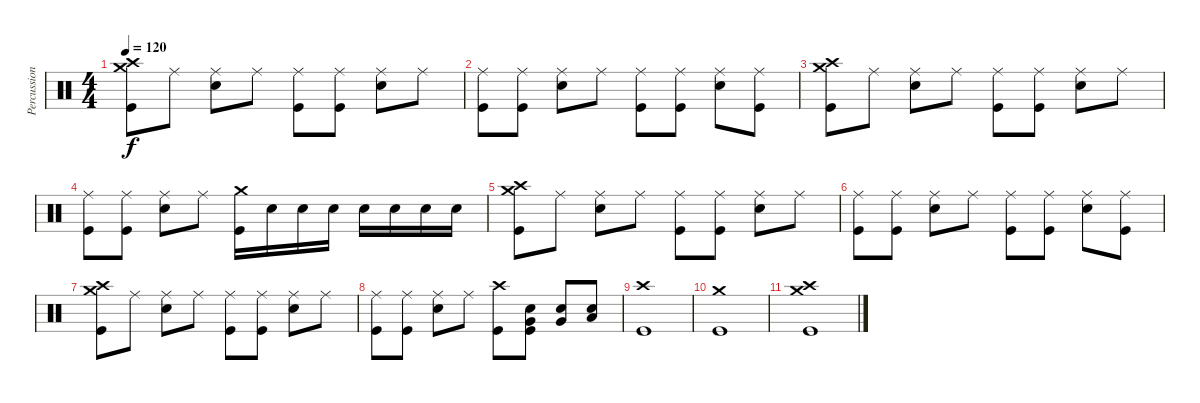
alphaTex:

\track ("Percussion" "Percussion") {instrument percussion}
\staff {score}
\articulation defaults
\ts (4 4)
\tempo 120
\clef neutral
\ks c
("Crash high (hit)" "Crash medium (hit)" "Kick (hit)").8{dy f} "Ride (middle)".8 ("Ride (middle)" "Snare (hit) 2").8 "Ride (middle)".8 ("Ride (middle)" "Kick (hit)").8 ("Ride (middle)" "Kick (hit)").8 ("Ride (middle)" "Snare (hit) 2").8 "Ride (middle)".8 |
("Ride (middle)" "Kick (hit)").8 ("Ride (middle)" "Kick (hit)").8 ("Ride (middle)" "Snare (hit) 2").8 "Ride (middle)".8 ("Ride (middle)" "Kick (hit)").8 ("Ride (middle)" "Kick (hit)").8 ("Ride (middle)" "Snare (hit) 2").8 ("Ride (middle)" "Kick (hit)").8 |
("Crash high (hit)" "Crash medium (hit)" "Kick (hit)").8 "Ride (middle)".8 ("Ride (middle)" "Snare (hit) 2").8 "Ride (middle)".8 ("Ride (middle)" "Kick (hit)").8 ("Ride (middle)" "Kick (hit)").8 ("Ride (middle)" "Snare (hit) 2").8 "Ride (middle)".8 |
("Ride (middle)" "Kick (hit)").8 ("Ride (middle)" "Kick (hit)").8 ("Ride (middle)" "Snare (hit) 2").8 "Ride (middle)".8 ("Crash medium (hit)" "Kick (hit)").16 "Snare (hit) 2".16 "Snare (hit) 2".16 "Snare (hit) 2".16 "Snare (hit) 2".16 "Snare (hit) 2".16 "Snare (hit) 2".16 "Snare (hit) 2".16 |
("Crash high (hit)" "Crash medium (hit)" "Kick (hit)").8 "Ride (middle)".8 ("Ride (middle)" "Snare (hit) 2").8 "Ride (middle)".8 ("Ride (middle)" "Kick (hit)").8 ("Ride (middle)" "Kick (hit)").8 ("Ride (middle)" "Snare (hit) 2").8 "Ride (middle)".8 |
("Ride (middle)" "Kick (hit)").8 ("Ride (middle)" "Kick (hit)").8 ("Ride (middle)" "Snare (hit) 2").8 "Ride (middle)".8 ("Ride (middle)" "Kick (hit)").8 ("Ride (middle)" "Kick (hit)").8 ("Ride (middle)" "Snare (hit) 2").8 ("Ride (middle)" "Kick (hit)").8 |
("Crash high (hit)" "Crash medium (hit)" "Kick (hit)").8 "Ride (middle)".8 ("Ride (middle)" "Snare (hit) 2").8 "Ride (middle)".8 ("Ride (middle)" "Kick (hit)").8 ("Ride (middle)" "Kick (hit)").8 ("Ride (middle)" "Snare (hit) 2").8 "Ride (middle)".8 |
("Ride (middle)" "Kick (hit)").8 ("Ride (middle)" "Kick (hit)").8 ("Ride (middle)" "Snare (hit) 2").8 "Ride (middle)".8 ("Crash high (hit)" "Kick (hit)").8 ("Snare (hit) 2" "Very Low Tom (hit)" "Kick (hit)").8 ("Snare (hit) 2" "Very Low Tom (hit)").8 ("Snare (hit) 2" "Low Floor Tom (hit)").8 |
("Crash high (hit)" "Kick (hit)").1 |
("Crash medium (hit)" "Kick (hit)").1 |
("Crash medium (hit)" "Crash high (hit)" "Kick (hit)").1
